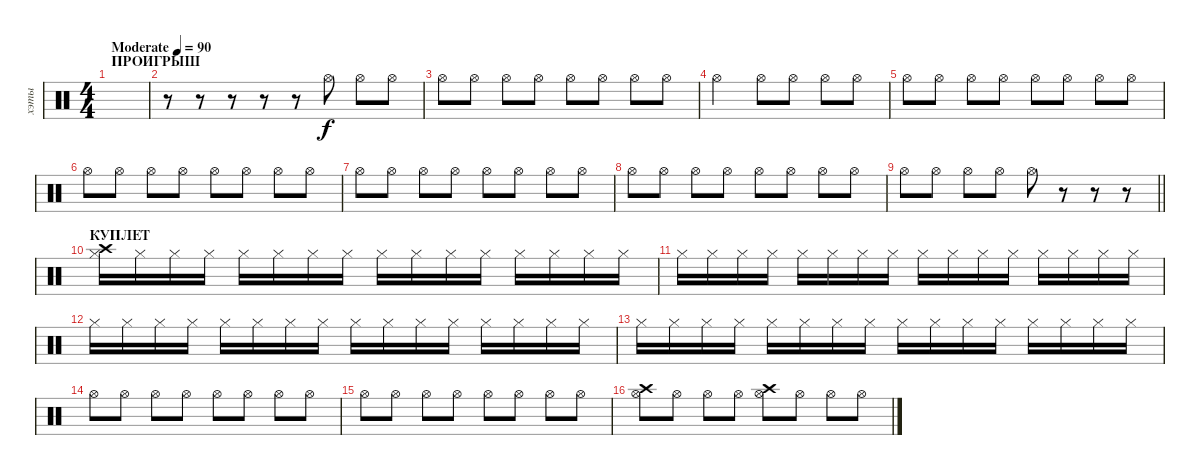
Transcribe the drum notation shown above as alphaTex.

\track ("хэты" "хэты") {instrument percussion}
\staff {score}
\articulation defaults
\ts (4 4)
\section ("" "ПРОИГРЫШ")
\tempo (90 "Moderate")
\clef neutral
\ks c
|
r.8 r.8 r.8 r.8 r.8 "Hi-Hat (open)".8 "Hi-Hat (open)".8 "Hi-Hat (open)".8 |
"Hi-Hat (open)".8 "Hi-Hat (open)".8 "Hi-Hat (open)".8 "Hi-Hat (open)".8 "Hi-Hat (open)".8 "Hi-Hat (open)".8 "Hi-Hat (open)".8 "Hi-Hat (open)".8 |
"Hi-Hat (open)".2 "Hi-Hat (open)".8 "Hi-Hat (open)".8 "Hi-Hat (open)".8 "Hi-Hat (open)".8 |
"Hi-Hat (open)".8 "Hi-Hat (open)".8 "Hi-Hat (open)".8 "Hi-Hat (open)".8 "Hi-Hat (open)".8 "Hi-Hat (open)".8 "Hi-Hat (open)".8 "Hi-Hat (open)".8 |
"Hi-Hat (open)".8 "Hi-Hat (open)".8 "Hi-Hat (open)".8 "Hi-Hat (open)".8 "Hi-Hat (open)".8 "Hi-Hat (open)".8 "Hi-Hat (open)".8 "Hi-Hat (open)".8 |
"Hi-Hat (open)".8 "Hi-Hat (open)".8 "Hi-Hat (open)".8 "Hi-Hat (open)".8 "Hi-Hat (open)".8 "Hi-Hat (open)".8 "Hi-Hat (open)".8 "Hi-Hat (open)".8 |
"Hi-Hat (open)".8 "Hi-Hat (open)".8 "Hi-Hat (open)".8 "Hi-Hat (open)".8 "Hi-Hat (open)".8 "Hi-Hat (open)".8 "Hi-Hat (open)".8 "Hi-Hat (open)".8 |
\barLineRight lightlight "Hi-Hat (open)".8 "Hi-Hat (open)".8 "Hi-Hat (open)".8 "Hi-Hat (open)".8 "Hi-Hat (open)".8
r.8 r.8 r.8 |
\section ("" "КУПЛЕТ")
("Hi-Hat (closed)" "Crash high (hit)").16 "Hi-Hat (closed)".16 "Hi-Hat (closed)".16 "Hi-Hat (closed)".16 "Hi-Hat (closed)".16 "Hi-Hat (closed)".16 "Hi-Hat (closed)".16 "Hi-Hat (closed)".16 "Hi-Hat (closed)".16 "Hi-Hat (closed)".16 "Hi-Hat (closed)".16 "Hi-Hat (closed)".16 "Hi-Hat (closed)".16 "Hi-Hat (closed)".16 "Hi-Hat (closed)".16 "Hi-Hat (closed)".16 |
"Hi-Hat (closed)".16 "Hi-Hat (closed)".16 "Hi-Hat (closed)".16 "Hi-Hat (closed)".16 "Hi-Hat (closed)".16 "Hi-Hat (closed)".16 "Hi-Hat (closed)".16 "Hi-Hat (closed)".16 "Hi-Hat (closed)".16 "Hi-Hat (closed)".16 "Hi-Hat (closed)".16 "Hi-Hat (closed)".16 "Hi-Hat (closed)".16 "Hi-Hat (closed)".16 "Hi-Hat (closed)".16 "Hi-Hat (closed)".16 |
"Hi-Hat (closed)".16 "Hi-Hat (closed)".16 "Hi-Hat (closed)".16 "Hi-Hat (closed)".16 "Hi-Hat (closed)".16 "Hi-Hat (closed)".16 "Hi-Hat (closed)".16 "Hi-Hat (closed)".16 "Hi-Hat (closed)".16 "Hi-Hat (closed)".16 "Hi-Hat (closed)".16 "Hi-Hat (closed)".16 "Hi-Hat (closed)".16 "Hi-Hat (closed)".16 "Hi-Hat (closed)".16 "Hi-Hat (closed)".16 |
"Hi-Hat (closed)".16 "Hi-Hat (closed)".16 "Hi-Hat (closed)".16 "Hi-Hat (closed)".16 "Hi-Hat (closed)".16 "Hi-Hat (closed)".16 "Hi-Hat (closed)".16 "Hi-Hat (closed)".16 "Hi-Hat (closed)".16 "Hi-Hat (closed)".16 "Hi-Hat (closed)".16 "Hi-Hat (closed)".16 "Hi-Hat (closed)".16 "Hi-Hat (closed)".16 "Hi-Hat (closed)".16 "Hi-Hat (closed)".16 |
"Hi-Hat (open)".8 "Hi-Hat (open)".8 "Hi-Hat (open)".8 "Hi-Hat (open)".8 "Hi-Hat (open)".8 "Hi-Hat (open)".8 "Hi-Hat (open)".8 "Hi-Hat (open)".8 |
"Hi-Hat (open)".8 "Hi-Hat (open)".8 "Hi-Hat (open)".8 "Hi-Hat (open)".8 "Hi-Hat (open)".8 "Hi-Hat (open)".8 "Hi-Hat (open)".8 "Hi-Hat (open)".8 |
("Hi-Hat (open)" "Crash high (hit)").8 "Hi-Hat (open)".8 "Hi-Hat (open)".8 "Hi-Hat (open)".8 ("Hi-Hat (open)" "Crash high (hit)").8 "Hi-Hat (open)".8 "Hi-Hat (open)".8 "Hi-Hat (open)".8
